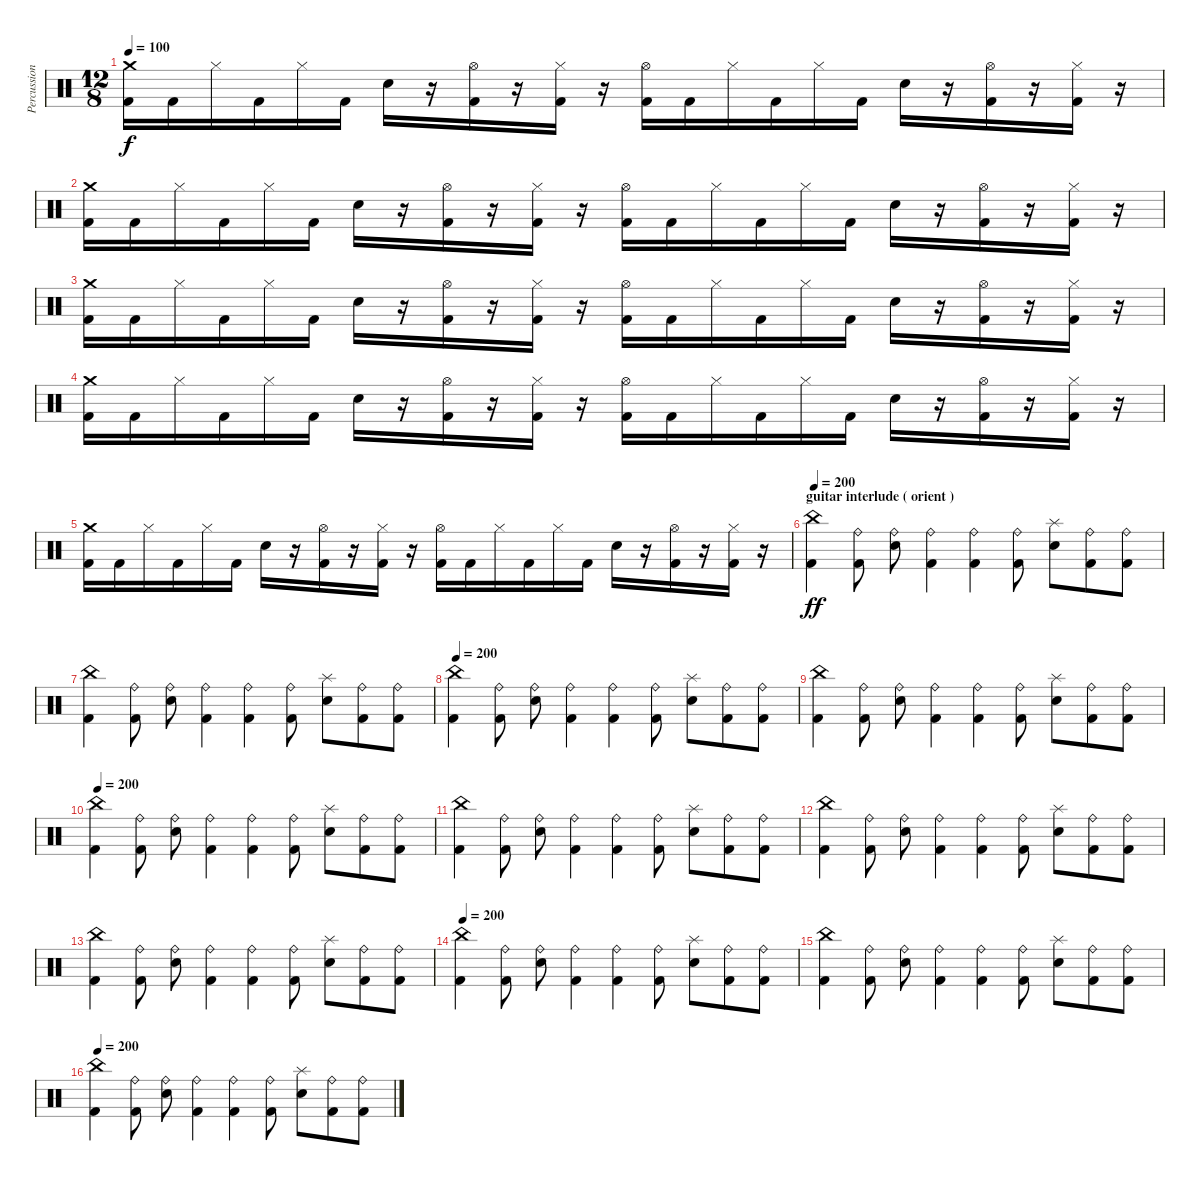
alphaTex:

\track ("Percussions" "Percussion") {instrument percussion}
\staff {score}
\articulation defaults
\ts (12 8)
\tempo 100
\clef neutral
\ks c
("Crash medium (hit)" "Kick (hit) 2").16{dy f} "Kick (hit) 2".16 "Hi-Hat (closed)".16 "Kick (hit) 2".16 "Hi-Hat (closed)".16 "Kick (hit) 2".16 "Electric Snare (hit)".16 r.16 ("Hi-Hat (open)" "Kick (hit) 2").16 r.16 ("Hi-Hat (closed)" "Kick (hit) 2").16 r.16 ("Hi-Hat (open)" "Kick (hit) 2").16 "Kick (hit) 2".16 "Hi-Hat (closed)".16 "Kick (hit) 2".16 "Hi-Hat (closed)".16 "Kick (hit) 2".16 "Electric Snare (hit)".16 r.16 ("Hi-Hat (open)" "Kick (hit) 2").16 r.16 ("Hi-Hat (closed)" "Kick (hit) 2").16 r.16 |
("Crash medium (hit)" "Kick (hit) 2").16 "Kick (hit) 2".16 "Hi-Hat (closed)".16 "Kick (hit) 2".16 "Hi-Hat (closed)".16 "Kick (hit) 2".16 "Electric Snare (hit)".16 r.16 ("Hi-Hat (open)" "Kick (hit) 2").16 r.16 ("Hi-Hat (closed)" "Kick (hit) 2").16 r.16 ("Hi-Hat (open)" "Kick (hit) 2").16 "Kick (hit) 2".16 "Hi-Hat (closed)".16 "Kick (hit) 2".16 "Hi-Hat (closed)".16 "Kick (hit) 2".16 "Electric Snare (hit)".16 r.16 ("Hi-Hat (open)" "Kick (hit) 2").16 r.16 ("Hi-Hat (closed)" "Kick (hit) 2").16 r.16 |
("Crash medium (hit)" "Kick (hit) 2").16 "Kick (hit) 2".16 "Hi-Hat (closed)".16 "Kick (hit) 2".16 "Hi-Hat (closed)".16 "Kick (hit) 2".16 "Electric Snare (hit)".16 r.16 ("Hi-Hat (open)" "Kick (hit) 2").16 r.16 ("Hi-Hat (closed)" "Kick (hit) 2").16 r.16 ("Hi-Hat (open)" "Kick (hit) 2").16 "Kick (hit) 2".16 "Hi-Hat (closed)".16 "Kick (hit) 2".16 "Hi-Hat (closed)".16 "Kick (hit) 2".16 "Electric Snare (hit)".16 r.16 ("Hi-Hat (open)" "Kick (hit) 2").16 r.16 ("Hi-Hat (closed)" "Kick (hit) 2").16 r.16 |
("Crash medium (hit)" "Kick (hit) 2").16 "Kick (hit) 2".16 "Hi-Hat (closed)".16 "Kick (hit) 2".16 "Hi-Hat (closed)".16 "Kick (hit) 2".16 "Electric Snare (hit)".16 r.16 ("Hi-Hat (open)" "Kick (hit) 2").16 r.16 ("Hi-Hat (closed)" "Kick (hit) 2").16 r.16 ("Hi-Hat (open)" "Kick (hit) 2").16 "Kick (hit) 2".16 "Hi-Hat (closed)".16 "Kick (hit) 2".16 "Hi-Hat (closed)".16 "Kick (hit) 2".16 "Electric Snare (hit)".16 r.16 ("Hi-Hat (open)" "Kick (hit) 2").16 r.16 ("Hi-Hat (closed)" "Kick (hit) 2").16 r.16 |
("Crash medium (hit)" "Kick (hit) 2").16 "Kick (hit) 2".16 "Hi-Hat (closed)".16 "Kick (hit) 2".16 "Hi-Hat (closed)".16 "Kick (hit) 2".16 "Electric Snare (hit)".16 r.16 ("Hi-Hat (open)" "Kick (hit) 2").16 r.16 ("Hi-Hat (closed)" "Kick (hit) 2").16 r.16 ("Hi-Hat (open)" "Kick (hit) 2").16 "Kick (hit) 2".16 "Hi-Hat (closed)".16 "Kick (hit) 2".16 "Hi-Hat (closed)".16 "Kick (hit) 2".16 "Electric Snare (hit)".16 r.16 ("Hi-Hat (open)" "Kick (hit) 2").16 r.16 ("Hi-Hat (closed)" "Kick (hit) 2").16 r.16 |
\section ("" "guitar interlude ( orient )")
\tempo 200
("China (hit)" "Kick (hit) 2").4{dy ff} ("Ride (bell)" "Kick (hit) 2").8 ("Ride (bell)" "Electric Snare (hit)").8 ("Ride (bell)" "Kick (hit) 2").4 ("Ride (bell)" "Kick (hit) 2").4 ("Ride (bell)" "Kick (hit) 2").8 ("Splash (hit)" "Electric Snare (hit)").8 ("Ride (bell)" "Kick (hit) 2").8 ("Ride (bell)" "Kick (hit) 2").8 |
("China (hit)" "Kick (hit) 2").4 ("Ride (bell)" "Kick (hit) 2").8 ("Ride (bell)" "Electric Snare (hit)").8 ("Ride (bell)" "Kick (hit) 2").4 ("Ride (bell)" "Kick (hit) 2").4 ("Ride (bell)" "Kick (hit) 2").8 ("Splash (hit)" "Electric Snare (hit)").8 ("Ride (bell)" "Kick (hit) 2").8 ("Ride (bell)" "Kick (hit) 2").8 |
\tempo 200
("China (hit)" "Kick (hit) 2").4 ("Ride (bell)" "Kick (hit) 2").8 ("Ride (bell)" "Electric Snare (hit)").8 ("Ride (bell)" "Kick (hit) 2").4 ("Ride (bell)" "Kick (hit) 2").4 ("Ride (bell)" "Kick (hit) 2").8 ("Splash (hit)" "Electric Snare (hit)").8 ("Ride (bell)" "Kick (hit) 2").8 ("Ride (bell)" "Kick (hit) 2").8 |
("China (hit)" "Kick (hit) 2").4 ("Ride (bell)" "Kick (hit) 2").8 ("Ride (bell)" "Electric Snare (hit)").8 ("Ride (bell)" "Kick (hit) 2").4 ("Ride (bell)" "Kick (hit) 2").4 ("Ride (bell)" "Kick (hit) 2").8 ("Splash (hit)" "Electric Snare (hit)").8 ("Ride (bell)" "Kick (hit) 2").8 ("Ride (bell)" "Kick (hit) 2").8 |
\tempo 200
("China (hit)" "Kick (hit) 2").4 ("Ride (bell)" "Kick (hit) 2").8 ("Ride (bell)" "Electric Snare (hit)").8 ("Ride (bell)" "Kick (hit) 2").4 ("Ride (bell)" "Kick (hit) 2").4 ("Ride (bell)" "Kick (hit) 2").8 ("Splash (hit)" "Electric Snare (hit)").8 ("Ride (bell)" "Kick (hit) 2").8 ("Ride (bell)" "Kick (hit) 2").8 |
("China (hit)" "Kick (hit) 2").4 ("Ride (bell)" "Kick (hit) 2").8 ("Ride (bell)" "Electric Snare (hit)").8 ("Ride (bell)" "Kick (hit) 2").4 ("Ride (bell)" "Kick (hit) 2").4 ("Ride (bell)" "Kick (hit) 2").8 ("Splash (hit)" "Electric Snare (hit)").8 ("Ride (bell)" "Kick (hit) 2").8 ("Ride (bell)" "Kick (hit) 2").8 |
("China (hit)" "Kick (hit) 2").4 ("Ride (bell)" "Kick (hit) 2").8 ("Ride (bell)" "Electric Snare (hit)").8 ("Ride (bell)" "Kick (hit) 2").4 ("Ride (bell)" "Kick (hit) 2").4 ("Ride (bell)" "Kick (hit) 2").8 ("Splash (hit)" "Electric Snare (hit)").8 ("Ride (bell)" "Kick (hit) 2").8 ("Ride (bell)" "Kick (hit) 2").8 |
("China (hit)" "Kick (hit) 2").4 ("Ride (bell)" "Kick (hit) 2").8 ("Ride (bell)" "Electric Snare (hit)").8 ("Ride (bell)" "Kick (hit) 2").4 ("Ride (bell)" "Kick (hit) 2").4 ("Ride (bell)" "Kick (hit) 2").8 ("Splash (hit)" "Electric Snare (hit)").8 ("Ride (bell)" "Kick (hit) 2").8 ("Ride (bell)" "Kick (hit) 2").8 |
\tempo 200
("China (hit)" "Kick (hit) 2").4 ("Ride (bell)" "Kick (hit) 2").8 ("Ride (bell)" "Electric Snare (hit)").8 ("Ride (bell)" "Kick (hit) 2").4 ("Ride (bell)" "Kick (hit) 2").4 ("Ride (bell)" "Kick (hit) 2").8 ("Splash (hit)" "Electric Snare (hit)").8 ("Ride (bell)" "Kick (hit) 2").8 ("Ride (bell)" "Kick (hit) 2").8 |
("China (hit)" "Kick (hit) 2").4 ("Ride (bell)" "Kick (hit) 2").8 ("Ride (bell)" "Electric Snare (hit)").8 ("Ride (bell)" "Kick (hit) 2").4 ("Ride (bell)" "Kick (hit) 2").4 ("Ride (bell)" "Kick (hit) 2").8 ("Splash (hit)" "Electric Snare (hit)").8 ("Ride (bell)" "Kick (hit) 2").8 ("Ride (bell)" "Kick (hit) 2").8 |
\tempo 200
("China (hit)" "Kick (hit) 2").4 ("Ride (bell)" "Kick (hit) 2").8 ("Ride (bell)" "Electric Snare (hit)").8 ("Ride (bell)" "Kick (hit) 2").4 ("Ride (bell)" "Kick (hit) 2").4 ("Ride (bell)" "Kick (hit) 2").8 ("Splash (hit)" "Electric Snare (hit)").8 ("Ride (bell)" "Kick (hit) 2").8 ("Ride (bell)" "Kick (hit) 2").8
